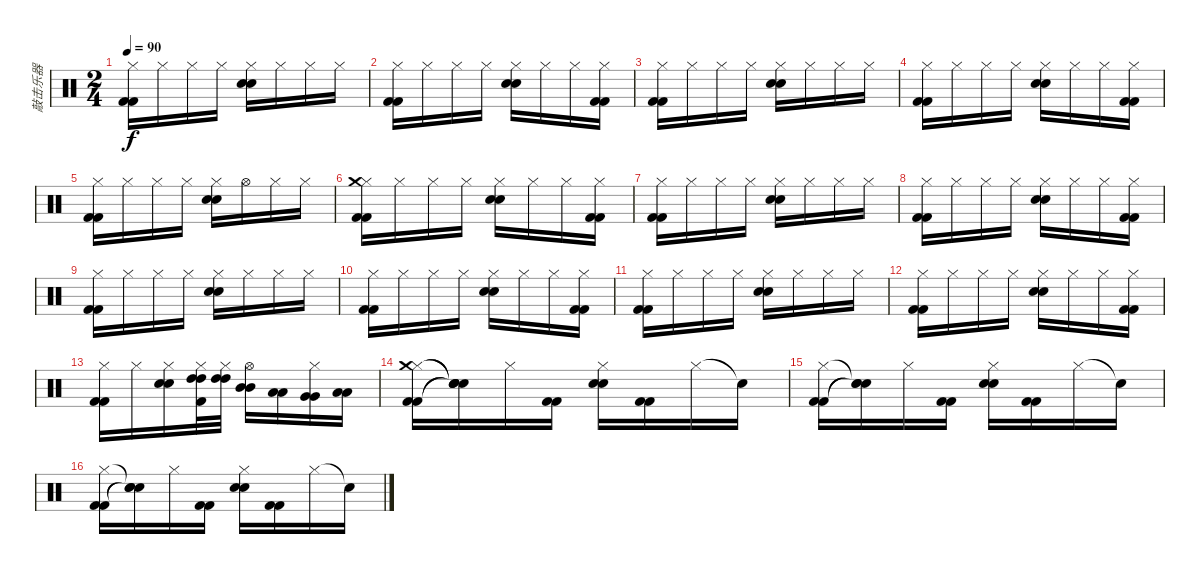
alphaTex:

\track ("敲击乐器" "敲击乐器") {instrument percussion}
\staff {score}
\articulation defaults
\ts (2 4)
\tempo 90
\clef neutral
\ks c
("Hi-Hat (closed)" "Kick (hit) 2" "Kick (hit) 2").16{dy f} "Hi-Hat (closed)".16 "Hi-Hat (closed)".16 "Hi-Hat (closed)".16 ("Hi-Hat (closed)" "Electric Snare (hit)" "Electric Snare (hit)").16 "Hi-Hat (closed)".16 "Hi-Hat (closed)".16 "Hi-Hat (closed)".16 |
("Hi-Hat (closed)" "Kick (hit) 2" "Kick (hit) 2").16 "Hi-Hat (closed)".16 "Hi-Hat (closed)".16 "Hi-Hat (closed)".16 ("Hi-Hat (closed)" "Electric Snare (hit)" "Electric Snare (hit)").16 "Hi-Hat (closed)".16 "Hi-Hat (closed)".16 ("Hi-Hat (closed)" "Kick (hit) 2" "Kick (hit) 2").16 |
("Hi-Hat (closed)" "Kick (hit) 2" "Kick (hit) 2").16 "Hi-Hat (closed)".16 "Hi-Hat (closed)".16 "Hi-Hat (closed)".16 ("Hi-Hat (closed)" "Electric Snare (hit)" "Electric Snare (hit)").16 "Hi-Hat (closed)".16 "Hi-Hat (closed)".16 "Hi-Hat (closed)".16 |
("Hi-Hat (closed)" "Kick (hit) 2" "Kick (hit) 2").16 "Hi-Hat (closed)".16 "Hi-Hat (closed)".16 "Hi-Hat (closed)".16 ("Hi-Hat (closed)" "Electric Snare (hit)" "Electric Snare (hit)").16 "Hi-Hat (closed)".16 "Hi-Hat (closed)".16 ("Hi-Hat (closed)" "Kick (hit) 2" "Kick (hit) 2").16 |
("Hi-Hat (closed)" "Kick (hit) 2" "Kick (hit) 2").16 "Hi-Hat (closed)".16 "Hi-Hat (closed)".16 "Hi-Hat (closed)".16 ("Hi-Hat (closed)" "Electric Snare (hit)" "Electric Snare (hit)").16 "Hi-Hat (open)".16 "Hi-Hat (closed)".16 "Hi-Hat (closed)".16 |
("Hi-Hat (closed)" "Crash medium (hit)" "Kick (hit) 2" "Kick (hit) 2").16 "Hi-Hat (closed)".16 "Hi-Hat (closed)".16 "Hi-Hat (closed)".16 ("Hi-Hat (closed)" "Electric Snare (hit)" "Electric Snare (hit)").16 "Hi-Hat (closed)".16 "Hi-Hat (closed)".16 ("Hi-Hat (closed)" "Kick (hit) 2" "Kick (hit) 2").16 |
("Hi-Hat (closed)" "Kick (hit) 2" "Kick (hit) 2").16 "Hi-Hat (closed)".16 "Hi-Hat (closed)".16 "Hi-Hat (closed)".16 ("Hi-Hat (closed)" "Electric Snare (hit)" "Electric Snare (hit)").16 "Hi-Hat (closed)".16 "Hi-Hat (closed)".16 "Hi-Hat (closed)".16 |
("Hi-Hat (closed)" "Kick (hit) 2" "Kick (hit) 2").16 "Hi-Hat (closed)".16 "Hi-Hat (closed)".16 "Hi-Hat (closed)".16 ("Hi-Hat (closed)" "Electric Snare (hit)" "Electric Snare (hit)").16 "Hi-Hat (closed)".16 "Hi-Hat (closed)".16 ("Hi-Hat (closed)" "Kick (hit) 2" "Kick (hit) 2").16 |
("Hi-Hat (closed)" "Kick (hit) 2" "Kick (hit) 2").16 "Hi-Hat (closed)".16 "Hi-Hat (closed)".16 "Hi-Hat (closed)".16 ("Hi-Hat (closed)" "Electric Snare (hit)" "Electric Snare (hit)").16 "Hi-Hat (closed)".16 "Hi-Hat (closed)".16 "Hi-Hat (closed)".16 |
("Hi-Hat (closed)" "Kick (hit) 2" "Kick (hit) 2").16 "Hi-Hat (closed)".16 "Hi-Hat (closed)".16 "Hi-Hat (closed)".16 ("Hi-Hat (closed)" "Electric Snare (hit)" "Electric Snare (hit)").16 "Hi-Hat (closed)".16 "Hi-Hat (closed)".16 ("Hi-Hat (closed)" "Kick (hit) 2" "Kick (hit) 2").16 |
("Hi-Hat (closed)" "Kick (hit) 2" "Kick (hit) 2").16 "Hi-Hat (closed)".16 "Hi-Hat (closed)".16 "Hi-Hat (closed)".16 ("Hi-Hat (closed)" "Electric Snare (hit)" "Electric Snare (hit)").16 "Hi-Hat (closed)".16 "Hi-Hat (closed)".16 "Hi-Hat (closed)".16 |
("Hi-Hat (closed)" "Kick (hit) 2" "Kick (hit) 2").16 "Hi-Hat (closed)".16 "Hi-Hat (closed)".16 "Hi-Hat (closed)".16 ("Hi-Hat (closed)" "Electric Snare (hit)" "Electric Snare (hit)").16 "Hi-Hat (closed)".16 "Hi-Hat (closed)".16 ("Hi-Hat (closed)" "Kick (hit) 2" "Kick (hit) 2").16 |
("Hi-Hat (closed)" "Kick (hit) 2" "Kick (hit) 2").16 "Hi-Hat (closed)".16 ("Hi-Hat (closed)" "Electric Snare (hit)" "Electric Snare (hit)").16 ("Hi-Hat (closed)" "High Tom (hit)" "High Tom (hit)" "Kick (hit) 2").32 ("Hi-Hat (closed)" "High Tom (hit)" "High Tom (hit)").32 ("Hi-Hat (open)" "Mid Tom (hit)" "Mid Tom (hit)").16 ("Low Tom (hit)" "Low Tom (hit)").16 ("Hi-Hat (closed)" "Very Low Tom (hit)" "Very Low Tom (hit)").16 ("Low Floor Tom (hit)" "Low Floor Tom (hit)").16 |
("Hi-Hat (closed)" "Crash medium (hit)" "Kick (hit) 2" "Kick (hit) 2").16 ("Snare (hit)"{t} "Snare (hit)"{t} "Snare (hit)"{t} "Snare (hit)"{t}).16 "Hi-Hat (closed)".16 ("Kick (hit) 2" "Kick (hit) 2").16 ("Hi-Hat (closed)" "Electric Snare (hit)" "Electric Snare (hit)").16 ("Kick (hit) 2" "Kick (hit) 2").16 "Hi-Hat (closed)".16 "Snare (hit)"{t}.16 |
("Hi-Hat (closed)" "Kick (hit) 2" "Kick (hit) 2").16 ("Snare (hit)"{t} "Snare (hit)"{t} "Snare (hit)"{t}).16 "Hi-Hat (closed)".16 ("Kick (hit) 2" "Kick (hit) 2").16 ("Hi-Hat (closed)" "Electric Snare (hit)" "Electric Snare (hit)").16 ("Kick (hit) 2" "Kick (hit) 2").16 "Hi-Hat (closed)".16 "Snare (hit)"{t}.16 |
("Hi-Hat (closed)" "Kick (hit) 2" "Kick (hit) 2").16 ("Snare (hit)"{t} "Snare (hit)"{t} "Snare (hit)"{t}).16 "Hi-Hat (closed)".16 ("Kick (hit) 2" "Kick (hit) 2").16 ("Hi-Hat (closed)" "Electric Snare (hit)" "Electric Snare (hit)").16 ("Kick (hit) 2" "Kick (hit) 2").16 "Hi-Hat (closed)".16 "Snare (hit)"{t}.16
